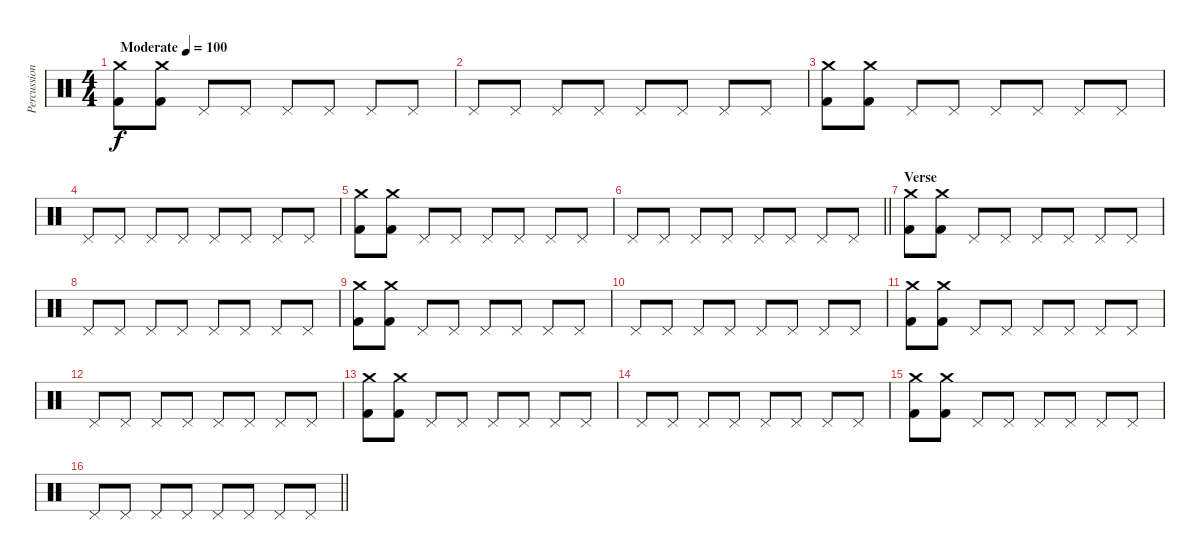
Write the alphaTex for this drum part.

\track ("Percussion" "Percussion") {instrument percussion}
\staff {score}
\articulation defaults
\ts (4 4)
\tempo (100 "Moderate")
\clef neutral
\ks c
("Crash medium (hit)" "Kick (hit) 2").8{dy f} ("Crash medium (hit)" "Kick (hit) 2").8 "Pedal Hi-Hat (hit)".8 "Pedal Hi-Hat (hit)".8 "Pedal Hi-Hat (hit)".8 "Pedal Hi-Hat (hit)".8 "Pedal Hi-Hat (hit)".8 "Pedal Hi-Hat (hit)".8 |
"Pedal Hi-Hat (hit)".8 "Pedal Hi-Hat (hit)".8 "Pedal Hi-Hat (hit)".8 "Pedal Hi-Hat (hit)".8 "Pedal Hi-Hat (hit)".8 "Pedal Hi-Hat (hit)".8 "Pedal Hi-Hat (hit)".8 "Pedal Hi-Hat (hit)".8 |
("Crash medium (hit)" "Kick (hit) 2").8 ("Crash medium (hit)" "Kick (hit) 2").8 "Pedal Hi-Hat (hit)".8 "Pedal Hi-Hat (hit)".8 "Pedal Hi-Hat (hit)".8 "Pedal Hi-Hat (hit)".8 "Pedal Hi-Hat (hit)".8 "Pedal Hi-Hat (hit)".8 |
"Pedal Hi-Hat (hit)".8 "Pedal Hi-Hat (hit)".8 "Pedal Hi-Hat (hit)".8 "Pedal Hi-Hat (hit)".8 "Pedal Hi-Hat (hit)".8 "Pedal Hi-Hat (hit)".8 "Pedal Hi-Hat (hit)".8 "Pedal Hi-Hat (hit)".8 |
("Crash medium (hit)" "Kick (hit) 2").8 ("Crash medium (hit)" "Kick (hit) 2").8 "Pedal Hi-Hat (hit)".8 "Pedal Hi-Hat (hit)".8 "Pedal Hi-Hat (hit)".8 "Pedal Hi-Hat (hit)".8 "Pedal Hi-Hat (hit)".8 "Pedal Hi-Hat (hit)".8 |
\barLineRight lightlight "Pedal Hi-Hat (hit)".8 "Pedal Hi-Hat (hit)".8 "Pedal Hi-Hat (hit)".8 "Pedal Hi-Hat (hit)".8 "Pedal Hi-Hat (hit)".8 "Pedal Hi-Hat (hit)".8 "Pedal Hi-Hat (hit)".8 "Pedal Hi-Hat (hit)".8
|
\section ("" "Verse")
("Crash medium (hit)" "Kick (hit) 2").8 ("Crash medium (hit)" "Kick (hit) 2").8 "Pedal Hi-Hat (hit)".8 "Pedal Hi-Hat (hit)".8 "Pedal Hi-Hat (hit)".8 "Pedal Hi-Hat (hit)".8 "Pedal Hi-Hat (hit)".8 "Pedal Hi-Hat (hit)".8 |
"Pedal Hi-Hat (hit)".8 "Pedal Hi-Hat (hit)".8 "Pedal Hi-Hat (hit)".8 "Pedal Hi-Hat (hit)".8 "Pedal Hi-Hat (hit)".8 "Pedal Hi-Hat (hit)".8 "Pedal Hi-Hat (hit)".8 "Pedal Hi-Hat (hit)".8 |
("Crash medium (hit)" "Kick (hit) 2").8 ("Crash medium (hit)" "Kick (hit) 2").8 "Pedal Hi-Hat (hit)".8 "Pedal Hi-Hat (hit)".8 "Pedal Hi-Hat (hit)".8 "Pedal Hi-Hat (hit)".8 "Pedal Hi-Hat (hit)".8 "Pedal Hi-Hat (hit)".8 |
"Pedal Hi-Hat (hit)".8 "Pedal Hi-Hat (hit)".8 "Pedal Hi-Hat (hit)".8 "Pedal Hi-Hat (hit)".8 "Pedal Hi-Hat (hit)".8 "Pedal Hi-Hat (hit)".8 "Pedal Hi-Hat (hit)".8 "Pedal Hi-Hat (hit)".8 |
("Crash medium (hit)" "Kick (hit) 2").8 ("Crash medium (hit)" "Kick (hit) 2").8 "Pedal Hi-Hat (hit)".8 "Pedal Hi-Hat (hit)".8 "Pedal Hi-Hat (hit)".8 "Pedal Hi-Hat (hit)".8 "Pedal Hi-Hat (hit)".8 "Pedal Hi-Hat (hit)".8 |
"Pedal Hi-Hat (hit)".8 "Pedal Hi-Hat (hit)".8 "Pedal Hi-Hat (hit)".8 "Pedal Hi-Hat (hit)".8 "Pedal Hi-Hat (hit)".8 "Pedal Hi-Hat (hit)".8 "Pedal Hi-Hat (hit)".8 "Pedal Hi-Hat (hit)".8 |
("Crash medium (hit)" "Kick (hit) 2").8 ("Crash medium (hit)" "Kick (hit) 2").8 "Pedal Hi-Hat (hit)".8 "Pedal Hi-Hat (hit)".8 "Pedal Hi-Hat (hit)".8 "Pedal Hi-Hat (hit)".8 "Pedal Hi-Hat (hit)".8 "Pedal Hi-Hat (hit)".8 |
"Pedal Hi-Hat (hit)".8 "Pedal Hi-Hat (hit)".8 "Pedal Hi-Hat (hit)".8 "Pedal Hi-Hat (hit)".8 "Pedal Hi-Hat (hit)".8 "Pedal Hi-Hat (hit)".8 "Pedal Hi-Hat (hit)".8 "Pedal Hi-Hat (hit)".8 |
("Crash medium (hit)" "Kick (hit) 2").8 ("Crash medium (hit)" "Kick (hit) 2").8 "Pedal Hi-Hat (hit)".8 "Pedal Hi-Hat (hit)".8 "Pedal Hi-Hat (hit)".8 "Pedal Hi-Hat (hit)".8 "Pedal Hi-Hat (hit)".8 "Pedal Hi-Hat (hit)".8 |
\barLineRight lightlight "Pedal Hi-Hat (hit)".8 "Pedal Hi-Hat (hit)".8 "Pedal Hi-Hat (hit)".8 "Pedal Hi-Hat (hit)".8 "Pedal Hi-Hat (hit)".8 "Pedal Hi-Hat (hit)".8 "Pedal Hi-Hat (hit)".8 "Pedal Hi-Hat (hit)".8
